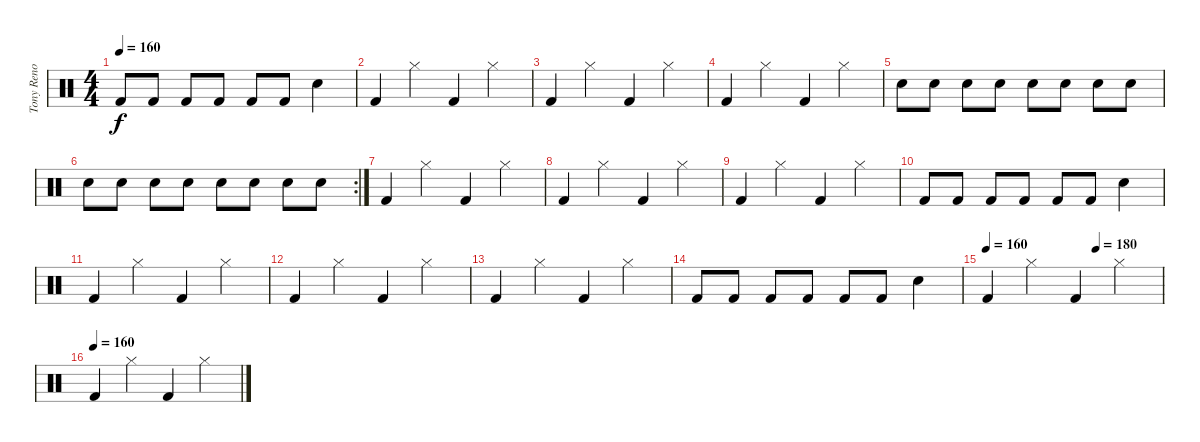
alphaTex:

\track ("Tony Reno" "Tony Reno") {instrument percussion}
\staff {score}
\articulation defaults
\ts (4 4)
\tempo 160
\clef neutral
\ks c "Kick (hit) 2".8{dy f} "Kick (hit) 2".8 "Kick (hit) 2".8 "Kick (hit) 2".8 "Kick (hit) 2".8 "Kick (hit) 2".8 "Snare (hit) 2".4
|
"Kick (hit) 2".4 "Hi-Hat (closed)".4 "Kick (hit) 2".4 "Hi-Hat (closed)".4 |
"Kick (hit) 2".4 "Hi-Hat (closed)".4 "Kick (hit) 2".4 "Hi-Hat (closed)".4 |
"Kick (hit) 2".4 "Hi-Hat (closed)".4 "Kick (hit) 2".4 "Hi-Hat (closed)".4 |
"Snare (hit) 2".8 "Snare (hit) 2".8 "Snare (hit) 2".8 "Snare (hit) 2".8 "Snare (hit) 2".8 "Snare (hit) 2".8 "Snare (hit) 2".8 "Snare (hit) 2".8 |
\rc 2 "Snare (hit) 2".8 "Snare (hit) 2".8 "Snare (hit) 2".8 "Snare (hit) 2".8 "Snare (hit) 2".8 "Snare (hit) 2".8 "Snare (hit) 2".8 "Snare (hit) 2".8
|
"Kick (hit) 2".4 "Hi-Hat (closed)".4 "Kick (hit) 2".4 "Hi-Hat (closed)".4 |
"Kick (hit) 2".4 "Hi-Hat (closed)".4 "Kick (hit) 2".4 "Hi-Hat (closed)".4 |
"Kick (hit) 2".4 "Hi-Hat (closed)".4 "Kick (hit) 2".4 "Hi-Hat (closed)".4 |
"Kick (hit) 2".8 "Kick (hit) 2".8 "Kick (hit) 2".8 "Kick (hit) 2".8 "Kick (hit) 2".8 "Kick (hit) 2".8 "Snare (hit) 2".4 |
"Kick (hit) 2".4 "Hi-Hat (closed)".4 "Kick (hit) 2".4 "Hi-Hat (closed)".4 |
"Kick (hit) 2".4 "Hi-Hat (closed)".4 "Kick (hit) 2".4 "Hi-Hat (closed)".4 |
"Kick (hit) 2".4 "Hi-Hat (closed)".4 "Kick (hit) 2".4 "Hi-Hat (closed)".4 |
"Kick (hit) 2".8 "Kick (hit) 2".8 "Kick (hit) 2".8 "Kick (hit) 2".8 "Kick (hit) 2".8 "Kick (hit) 2".8 "Snare (hit) 2".4 |
\tempo 160
\tempo (180 0.625)
"Kick (hit) 2".4 "Hi-Hat (closed)".4 "Kick (hit) 2".4 "Hi-Hat (closed)".4 |
\tempo (160)
"Kick (hit) 2".4 "Hi-Hat (closed)".4 "Kick (hit) 2".4 "Hi-Hat (closed)".4
